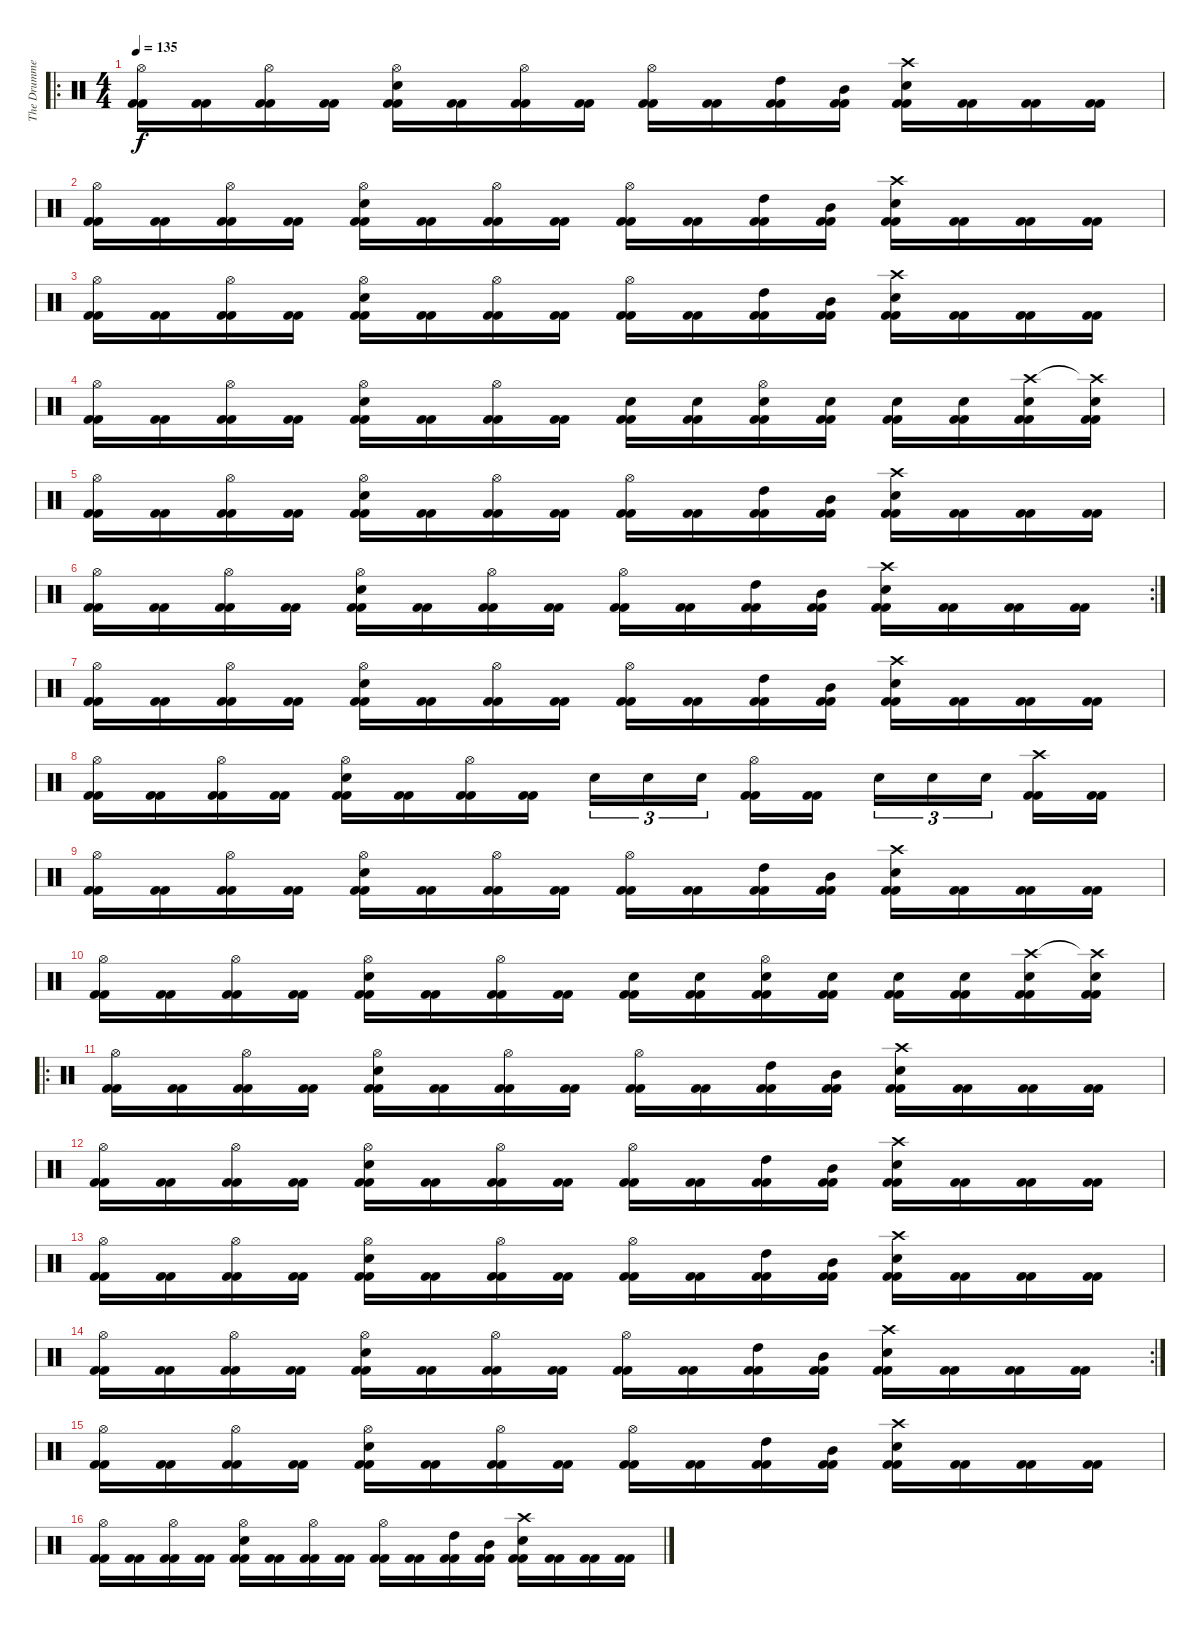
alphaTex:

\track ("The Drummer" "The Drumme") {instrument percussion}
\staff {score}
\articulation defaults
\ro
\ts (4 4)
\tempo 135
\clef neutral
\ks c
("Hi-Hat (open)" "Kick (hit) 2" "Kick (hit) 2").16{dy f} ("Kick (hit) 2" "Kick (hit) 2").16 ("Hi-Hat (open)" "Kick (hit) 2" "Kick (hit) 2").16 ("Kick (hit) 2" "Kick (hit) 2").16 ("Hi-Hat (open)" "Electric Snare (hit)" "Kick (hit) 2" "Kick (hit) 2").16 ("Kick (hit) 2" "Kick (hit) 2").16 ("Hi-Hat (open)" "Kick (hit) 2" "Kick (hit) 2").16 ("Kick (hit) 2" "Kick (hit) 2").16 ("Hi-Hat (open)" "Kick (hit) 2" "Kick (hit) 2").16 ("Kick (hit) 2" "Kick (hit) 2").16 ("High Tom (hit)" "Kick (hit) 2" "Kick (hit) 2").16 ("Mid Tom (hit)" "Kick (hit) 2" "Kick (hit) 2").16 ("Crash high (hit)" "Electric Snare (hit)" "Kick (hit) 2" "Kick (hit) 2").16 ("Kick (hit) 2" "Kick (hit) 2").16 ("Kick (hit) 2" "Kick (hit) 2").16 ("Kick (hit) 2" "Kick (hit) 2").16 |
("Hi-Hat (open)" "Kick (hit) 2" "Kick (hit) 2").16 ("Kick (hit) 2" "Kick (hit) 2").16 ("Hi-Hat (open)" "Kick (hit) 2" "Kick (hit) 2").16 ("Kick (hit) 2" "Kick (hit) 2").16 ("Hi-Hat (open)" "Electric Snare (hit)" "Kick (hit) 2" "Kick (hit) 2").16 ("Kick (hit) 2" "Kick (hit) 2").16 ("Hi-Hat (open)" "Kick (hit) 2" "Kick (hit) 2").16 ("Kick (hit) 2" "Kick (hit) 2").16 ("Hi-Hat (open)" "Kick (hit) 2" "Kick (hit) 2").16 ("Kick (hit) 2" "Kick (hit) 2").16 ("High Tom (hit)" "Kick (hit) 2" "Kick (hit) 2").16 ("Mid Tom (hit)" "Kick (hit) 2" "Kick (hit) 2").16 ("Crash high (hit)" "Electric Snare (hit)" "Kick (hit) 2" "Kick (hit) 2").16 ("Kick (hit) 2" "Kick (hit) 2").16 ("Kick (hit) 2" "Kick (hit) 2").16 ("Kick (hit) 2" "Kick (hit) 2").16 |
("Hi-Hat (open)" "Kick (hit) 2" "Kick (hit) 2").16 ("Kick (hit) 2" "Kick (hit) 2").16 ("Hi-Hat (open)" "Kick (hit) 2" "Kick (hit) 2").16 ("Kick (hit) 2" "Kick (hit) 2").16 ("Hi-Hat (open)" "Electric Snare (hit)" "Kick (hit) 2" "Kick (hit) 2").16 ("Kick (hit) 2" "Kick (hit) 2").16 ("Hi-Hat (open)" "Kick (hit) 2" "Kick (hit) 2").16 ("Kick (hit) 2" "Kick (hit) 2").16 ("Hi-Hat (open)" "Kick (hit) 2" "Kick (hit) 2").16 ("Kick (hit) 2" "Kick (hit) 2").16 ("High Tom (hit)" "Kick (hit) 2" "Kick (hit) 2").16 ("Mid Tom (hit)" "Kick (hit) 2" "Kick (hit) 2").16 ("Crash high (hit)" "Electric Snare (hit)" "Kick (hit) 2" "Kick (hit) 2").16 ("Kick (hit) 2" "Kick (hit) 2").16 ("Kick (hit) 2" "Kick (hit) 2").16 ("Kick (hit) 2" "Kick (hit) 2").16 |
("Hi-Hat (open)" "Kick (hit) 2" "Kick (hit) 2").16 ("Kick (hit) 2" "Kick (hit) 2").16 ("Hi-Hat (open)" "Kick (hit) 2" "Kick (hit) 2").16 ("Kick (hit) 2" "Kick (hit) 2").16 ("Hi-Hat (open)" "Electric Snare (hit)" "Kick (hit) 2" "Kick (hit) 2").16 ("Kick (hit) 2" "Kick (hit) 2").16 ("Hi-Hat (open)" "Kick (hit) 2" "Kick (hit) 2").16 ("Kick (hit) 2" "Kick (hit) 2").16 ("Electric Snare (hit)" "Kick (hit) 2" "Kick (hit) 2").16 ("Electric Snare (hit)" "Kick (hit) 2" "Kick (hit) 2").16 ("Hi-Hat (open)" "Electric Snare (hit)" "Kick (hit) 2" "Kick (hit) 2").16 ("Electric Snare (hit)" "Kick (hit) 2" "Kick (hit) 2").16 ("Electric Snare (hit)" "Kick (hit) 2" "Kick (hit) 2").16 ("Electric Snare (hit)" "Kick (hit) 2" "Kick (hit) 2").16 ("Crash high (hit)" "Electric Snare (hit)" "Kick (hit) 2" "Kick (hit) 2").16 ("Crash high (hit)"{t} "Electric Snare (hit)" "Kick (hit) 2" "Kick (hit) 2").16 |
("Hi-Hat (open)" "Kick (hit) 2" "Kick (hit) 2").16 ("Kick (hit) 2" "Kick (hit) 2").16 ("Hi-Hat (open)" "Kick (hit) 2" "Kick (hit) 2").16 ("Kick (hit) 2" "Kick (hit) 2").16 ("Hi-Hat (open)" "Electric Snare (hit)" "Kick (hit) 2" "Kick (hit) 2").16 ("Kick (hit) 2" "Kick (hit) 2").16 ("Hi-Hat (open)" "Kick (hit) 2" "Kick (hit) 2").16 ("Kick (hit) 2" "Kick (hit) 2").16 ("Hi-Hat (open)" "Kick (hit) 2" "Kick (hit) 2").16 ("Kick (hit) 2" "Kick (hit) 2").16 ("High Tom (hit)" "Kick (hit) 2" "Kick (hit) 2").16 ("Mid Tom (hit)" "Kick (hit) 2" "Kick (hit) 2").16 ("Crash high (hit)" "Electric Snare (hit)" "Kick (hit) 2" "Kick (hit) 2").16 ("Kick (hit) 2" "Kick (hit) 2").16 ("Kick (hit) 2" "Kick (hit) 2").16 ("Kick (hit) 2" "Kick (hit) 2").16 |
\rc 2
("Hi-Hat (open)" "Kick (hit) 2" "Kick (hit) 2").16 ("Kick (hit) 2" "Kick (hit) 2").16 ("Hi-Hat (open)" "Kick (hit) 2" "Kick (hit) 2").16 ("Kick (hit) 2" "Kick (hit) 2").16 ("Hi-Hat (open)" "Electric Snare (hit)" "Kick (hit) 2" "Kick (hit) 2").16 ("Kick (hit) 2" "Kick (hit) 2").16 ("Hi-Hat (open)" "Kick (hit) 2" "Kick (hit) 2").16 ("Kick (hit) 2" "Kick (hit) 2").16 ("Hi-Hat (open)" "Kick (hit) 2" "Kick (hit) 2").16 ("Kick (hit) 2" "Kick (hit) 2").16 ("High Tom (hit)" "Kick (hit) 2" "Kick (hit) 2").16 ("Mid Tom (hit)" "Kick (hit) 2" "Kick (hit) 2").16 ("Crash high (hit)" "Electric Snare (hit)" "Kick (hit) 2" "Kick (hit) 2").16 ("Kick (hit) 2" "Kick (hit) 2").16 ("Kick (hit) 2" "Kick (hit) 2").16 ("Kick (hit) 2" "Kick (hit) 2").16 |
("Hi-Hat (open)" "Kick (hit) 2" "Kick (hit) 2").16 ("Kick (hit) 2" "Kick (hit) 2").16 ("Hi-Hat (open)" "Kick (hit) 2" "Kick (hit) 2").16 ("Kick (hit) 2" "Kick (hit) 2").16 ("Hi-Hat (open)" "Electric Snare (hit)" "Kick (hit) 2" "Kick (hit) 2").16 ("Kick (hit) 2" "Kick (hit) 2").16 ("Hi-Hat (open)" "Kick (hit) 2" "Kick (hit) 2").16 ("Kick (hit) 2" "Kick (hit) 2").16 ("Hi-Hat (open)" "Kick (hit) 2" "Kick (hit) 2").16 ("Kick (hit) 2" "Kick (hit) 2").16 ("High Tom (hit)" "Kick (hit) 2" "Kick (hit) 2").16 ("Mid Tom (hit)" "Kick (hit) 2" "Kick (hit) 2").16 ("Crash high (hit)" "Electric Snare (hit)" "Kick (hit) 2" "Kick (hit) 2").16 ("Kick (hit) 2" "Kick (hit) 2").16 ("Kick (hit) 2" "Kick (hit) 2").16 ("Kick (hit) 2" "Kick (hit) 2").16 |
("Hi-Hat (open)" "Kick (hit) 2" "Kick (hit) 2").16 ("Kick (hit) 2" "Kick (hit) 2").16 ("Hi-Hat (open)" "Kick (hit) 2" "Kick (hit) 2").16 ("Kick (hit) 2" "Kick (hit) 2").16 ("Hi-Hat (open)" "Electric Snare (hit)" "Kick (hit) 2" "Kick (hit) 2").16 ("Kick (hit) 2" "Kick (hit) 2").16 ("Hi-Hat (open)" "Kick (hit) 2" "Kick (hit) 2").16 ("Kick (hit) 2" "Kick (hit) 2").16 "Electric Snare (hit)".16{tu (3 2)} "Electric Snare (hit)".16{tu (3 2)} "Electric Snare (hit)".16{tu (3 2)} ("Hi-Hat (open)" "Kick (hit) 2" "Kick (hit) 2").16 ("Kick (hit) 2" "Kick (hit) 2").16 "Electric Snare (hit)".16{tu (3 2)} "Electric Snare (hit)".16{tu (3 2)} "Electric Snare (hit)".16{tu (3 2)} ("Crash high (hit)" "Kick (hit) 2" "Kick (hit) 2").16 ("Kick (hit) 2" "Kick (hit) 2").16 |
("Hi-Hat (open)" "Kick (hit) 2" "Kick (hit) 2").16 ("Kick (hit) 2" "Kick (hit) 2").16 ("Hi-Hat (open)" "Kick (hit) 2" "Kick (hit) 2").16 ("Kick (hit) 2" "Kick (hit) 2").16 ("Hi-Hat (open)" "Electric Snare (hit)" "Kick (hit) 2" "Kick (hit) 2").16 ("Kick (hit) 2" "Kick (hit) 2").16 ("Hi-Hat (open)" "Kick (hit) 2" "Kick (hit) 2").16 ("Kick (hit) 2" "Kick (hit) 2").16 ("Hi-Hat (open)" "Kick (hit) 2" "Kick (hit) 2").16 ("Kick (hit) 2" "Kick (hit) 2").16 ("High Tom (hit)" "Kick (hit) 2" "Kick (hit) 2").16 ("Mid Tom (hit)" "Kick (hit) 2" "Kick (hit) 2").16 ("Crash high (hit)" "Electric Snare (hit)" "Kick (hit) 2" "Kick (hit) 2").16 ("Kick (hit) 2" "Kick (hit) 2").16 ("Kick (hit) 2" "Kick (hit) 2").16 ("Kick (hit) 2" "Kick (hit) 2").16 |
("Hi-Hat (open)" "Kick (hit) 2" "Kick (hit) 2").16 ("Kick (hit) 2" "Kick (hit) 2").16 ("Hi-Hat (open)" "Kick (hit) 2" "Kick (hit) 2").16 ("Kick (hit) 2" "Kick (hit) 2").16 ("Hi-Hat (open)" "Electric Snare (hit)" "Kick (hit) 2" "Kick (hit) 2").16 ("Kick (hit) 2" "Kick (hit) 2").16 ("Hi-Hat (open)" "Kick (hit) 2" "Kick (hit) 2").16 ("Kick (hit) 2" "Kick (hit) 2").16 ("Electric Snare (hit)" "Kick (hit) 2" "Kick (hit) 2").16 ("Electric Snare (hit)" "Kick (hit) 2" "Kick (hit) 2").16 ("Hi-Hat (open)" "Electric Snare (hit)" "Kick (hit) 2" "Kick (hit) 2").16 ("Electric Snare (hit)" "Kick (hit) 2" "Kick (hit) 2").16 ("Electric Snare (hit)" "Kick (hit) 2" "Kick (hit) 2").16 ("Electric Snare (hit)" "Kick (hit) 2" "Kick (hit) 2").16 ("Crash high (hit)" "Electric Snare (hit)" "Kick (hit) 2" "Kick (hit) 2").16 ("Crash high (hit)"{t} "Electric Snare (hit)" "Kick (hit) 2" "Kick (hit) 2").16 |
\ro
("Hi-Hat (open)" "Kick (hit) 2" "Kick (hit) 2").16 ("Kick (hit) 2" "Kick (hit) 2").16 ("Hi-Hat (open)" "Kick (hit) 2" "Kick (hit) 2").16 ("Kick (hit) 2" "Kick (hit) 2").16 ("Hi-Hat (open)" "Electric Snare (hit)" "Kick (hit) 2" "Kick (hit) 2").16 ("Kick (hit) 2" "Kick (hit) 2").16 ("Hi-Hat (open)" "Kick (hit) 2" "Kick (hit) 2").16 ("Kick (hit) 2" "Kick (hit) 2").16 ("Hi-Hat (open)" "Kick (hit) 2" "Kick (hit) 2").16 ("Kick (hit) 2" "Kick (hit) 2").16 ("High Tom (hit)" "Kick (hit) 2" "Kick (hit) 2").16 ("Mid Tom (hit)" "Kick (hit) 2" "Kick (hit) 2").16 ("Crash high (hit)" "Electric Snare (hit)" "Kick (hit) 2" "Kick (hit) 2").16 ("Kick (hit) 2" "Kick (hit) 2").16 ("Kick (hit) 2" "Kick (hit) 2").16 ("Kick (hit) 2" "Kick (hit) 2").16 |
("Hi-Hat (open)" "Kick (hit) 2" "Kick (hit) 2").16 ("Kick (hit) 2" "Kick (hit) 2").16 ("Hi-Hat (open)" "Kick (hit) 2" "Kick (hit) 2").16 ("Kick (hit) 2" "Kick (hit) 2").16 ("Hi-Hat (open)" "Electric Snare (hit)" "Kick (hit) 2" "Kick (hit) 2").16 ("Kick (hit) 2" "Kick (hit) 2").16 ("Hi-Hat (open)" "Kick (hit) 2" "Kick (hit) 2").16 ("Kick (hit) 2" "Kick (hit) 2").16 ("Hi-Hat (open)" "Kick (hit) 2" "Kick (hit) 2").16 ("Kick (hit) 2" "Kick (hit) 2").16 ("High Tom (hit)" "Kick (hit) 2" "Kick (hit) 2").16 ("Mid Tom (hit)" "Kick (hit) 2" "Kick (hit) 2").16 ("Crash high (hit)" "Electric Snare (hit)" "Kick (hit) 2" "Kick (hit) 2").16 ("Kick (hit) 2" "Kick (hit) 2").16 ("Kick (hit) 2" "Kick (hit) 2").16 ("Kick (hit) 2" "Kick (hit) 2").16 |
("Hi-Hat (open)" "Kick (hit) 2" "Kick (hit) 2").16 ("Kick (hit) 2" "Kick (hit) 2").16 ("Hi-Hat (open)" "Kick (hit) 2" "Kick (hit) 2").16 ("Kick (hit) 2" "Kick (hit) 2").16 ("Hi-Hat (open)" "Electric Snare (hit)" "Kick (hit) 2" "Kick (hit) 2").16 ("Kick (hit) 2" "Kick (hit) 2").16 ("Hi-Hat (open)" "Kick (hit) 2" "Kick (hit) 2").16 ("Kick (hit) 2" "Kick (hit) 2").16 ("Hi-Hat (open)" "Kick (hit) 2" "Kick (hit) 2").16 ("Kick (hit) 2" "Kick (hit) 2").16 ("High Tom (hit)" "Kick (hit) 2" "Kick (hit) 2").16 ("Mid Tom (hit)" "Kick (hit) 2" "Kick (hit) 2").16 ("Crash high (hit)" "Electric Snare (hit)" "Kick (hit) 2" "Kick (hit) 2").16 ("Kick (hit) 2" "Kick (hit) 2").16 ("Kick (hit) 2" "Kick (hit) 2").16 ("Kick (hit) 2" "Kick (hit) 2").16 |
\rc 2
("Hi-Hat (open)" "Kick (hit) 2" "Kick (hit) 2").16 ("Kick (hit) 2" "Kick (hit) 2").16 ("Hi-Hat (open)" "Kick (hit) 2" "Kick (hit) 2").16 ("Kick (hit) 2" "Kick (hit) 2").16 ("Hi-Hat (open)" "Electric Snare (hit)" "Kick (hit) 2" "Kick (hit) 2").16 ("Kick (hit) 2" "Kick (hit) 2").16 ("Hi-Hat (open)" "Kick (hit) 2" "Kick (hit) 2").16 ("Kick (hit) 2" "Kick (hit) 2").16 ("Hi-Hat (open)" "Kick (hit) 2" "Kick (hit) 2").16 ("Kick (hit) 2" "Kick (hit) 2").16 ("High Tom (hit)" "Kick (hit) 2" "Kick (hit) 2").16 ("Mid Tom (hit)" "Kick (hit) 2" "Kick (hit) 2").16 ("Crash high (hit)" "Electric Snare (hit)" "Kick (hit) 2" "Kick (hit) 2").16 ("Kick (hit) 2" "Kick (hit) 2").16 ("Kick (hit) 2" "Kick (hit) 2").16 ("Kick (hit) 2" "Kick (hit) 2").16 |
("Hi-Hat (open)" "Kick (hit) 2" "Kick (hit) 2").16 ("Kick (hit) 2" "Kick (hit) 2").16 ("Hi-Hat (open)" "Kick (hit) 2" "Kick (hit) 2").16 ("Kick (hit) 2" "Kick (hit) 2").16 ("Hi-Hat (open)" "Electric Snare (hit)" "Kick (hit) 2" "Kick (hit) 2").16 ("Kick (hit) 2" "Kick (hit) 2").16 ("Hi-Hat (open)" "Kick (hit) 2" "Kick (hit) 2").16 ("Kick (hit) 2" "Kick (hit) 2").16 ("Hi-Hat (open)" "Kick (hit) 2" "Kick (hit) 2").16 ("Kick (hit) 2" "Kick (hit) 2").16 ("High Tom (hit)" "Kick (hit) 2" "Kick (hit) 2").16 ("Mid Tom (hit)" "Kick (hit) 2" "Kick (hit) 2").16 ("Crash high (hit)" "Electric Snare (hit)" "Kick (hit) 2" "Kick (hit) 2").16 ("Kick (hit) 2" "Kick (hit) 2").16 ("Kick (hit) 2" "Kick (hit) 2").16 ("Kick (hit) 2" "Kick (hit) 2").16 |
("Hi-Hat (open)" "Kick (hit) 2" "Kick (hit) 2").16 ("Kick (hit) 2" "Kick (hit) 2").16 ("Hi-Hat (open)" "Kick (hit) 2" "Kick (hit) 2").16 ("Kick (hit) 2" "Kick (hit) 2").16 ("Hi-Hat (open)" "Electric Snare (hit)" "Kick (hit) 2" "Kick (hit) 2").16 ("Kick (hit) 2" "Kick (hit) 2").16 ("Hi-Hat (open)" "Kick (hit) 2" "Kick (hit) 2").16 ("Kick (hit) 2" "Kick (hit) 2").16 ("Hi-Hat (open)" "Kick (hit) 2" "Kick (hit) 2").16 ("Kick (hit) 2" "Kick (hit) 2").16 ("High Tom (hit)" "Kick (hit) 2" "Kick (hit) 2").16 ("Mid Tom (hit)" "Kick (hit) 2" "Kick (hit) 2").16 ("Crash high (hit)" "Electric Snare (hit)" "Kick (hit) 2" "Kick (hit) 2").16 ("Kick (hit) 2" "Kick (hit) 2").16 ("Kick (hit) 2" "Kick (hit) 2").16 ("Kick (hit) 2" "Kick (hit) 2").16
